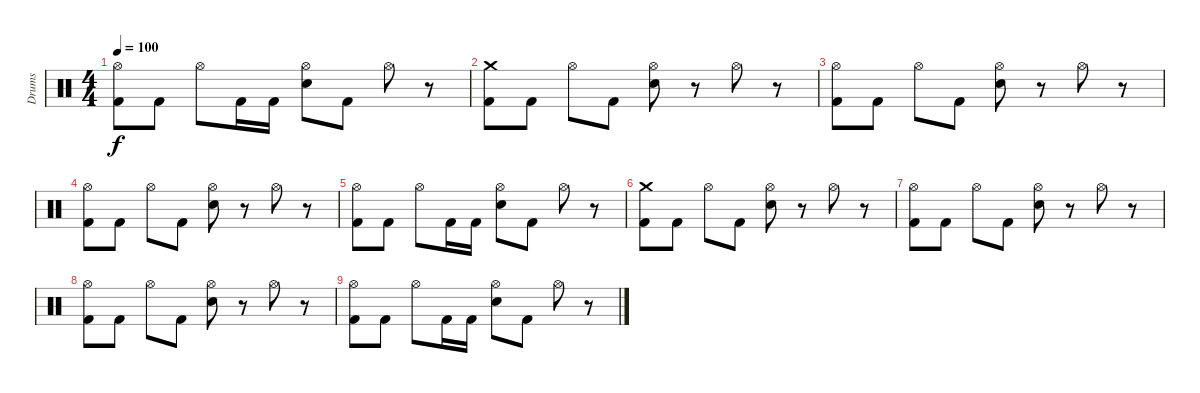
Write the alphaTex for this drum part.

\track ("Drums" "Drums") {instrument percussion}
\staff {score}
\articulation defaults
\ts (4 4)
\tempo 100
\clef neutral
\ks c
("Kick (hit) 2" "Hi-Hat (open)").8{dy f} "Kick (hit) 2".8 "Hi-Hat (open)".8 "Kick (hit) 2".16 "Kick (hit) 2".16 ("Snare (hit) 2" "Hi-Hat (open)").8 "Kick (hit) 2".8 "Hi-Hat (open)".8 r.8 |
("Kick (hit) 2" "Crash medium (hit)").8 "Kick (hit) 2".8 "Hi-Hat (open)".8 "Kick (hit) 2".8 ("Snare (hit) 2" "Hi-Hat (open)").8 r.8 "Hi-Hat (open)".8 r.8 |
("Kick (hit) 2" "Hi-Hat (open)").8 "Kick (hit) 2".8 "Hi-Hat (open)".8 "Kick (hit) 2".8 ("Snare (hit) 2" "Hi-Hat (open)").8 r.8 "Hi-Hat (open)".8 r.8 |
("Kick (hit) 2" "Hi-Hat (open)").8 "Kick (hit) 2".8 "Hi-Hat (open)".8 "Kick (hit) 2".8 ("Snare (hit) 2" "Hi-Hat (open)").8 r.8 "Hi-Hat (open)".8 r.8 |
("Kick (hit) 2" "Hi-Hat (open)").8 "Kick (hit) 2".8 "Hi-Hat (open)".8 "Kick (hit) 2".16 "Kick (hit) 2".16 ("Snare (hit) 2" "Hi-Hat (open)").8 "Kick (hit) 2".8 "Hi-Hat (open)".8 r.8 |
("Kick (hit) 2" "Crash medium (hit)").8 "Kick (hit) 2".8 "Hi-Hat (open)".8 "Kick (hit) 2".8 ("Snare (hit) 2" "Hi-Hat (open)").8 r.8 "Hi-Hat (open)".8 r.8 |
("Kick (hit) 2" "Hi-Hat (open)").8 "Kick (hit) 2".8 "Hi-Hat (open)".8 "Kick (hit) 2".8 ("Snare (hit) 2" "Hi-Hat (open)").8 r.8 "Hi-Hat (open)".8 r.8 |
("Kick (hit) 2" "Hi-Hat (open)").8 "Kick (hit) 2".8 "Hi-Hat (open)".8 "Kick (hit) 2".8 ("Snare (hit) 2" "Hi-Hat (open)").8 r.8 "Hi-Hat (open)".8 r.8 |
("Kick (hit) 2" "Hi-Hat (open)").8 "Kick (hit) 2".8 "Hi-Hat (open)".8 "Kick (hit) 2".16 "Kick (hit) 2".16 ("Snare (hit) 2" "Hi-Hat (open)").8 "Kick (hit) 2".8 "Hi-Hat (open)".8 r.8
